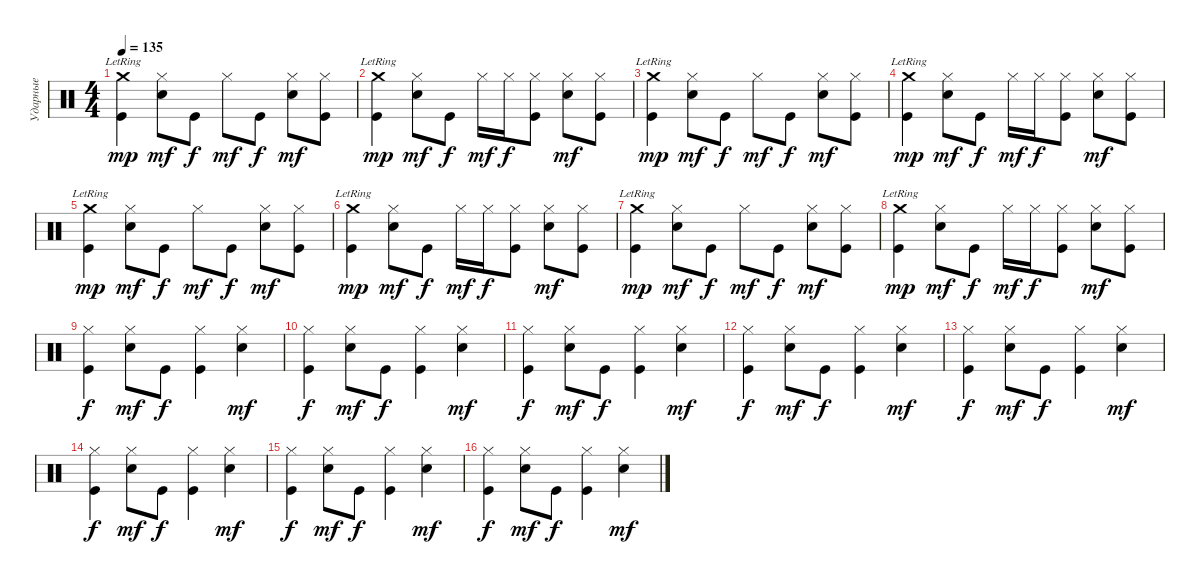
\track ("Ударные" "Ударные") {instrument percussion}
\staff {score}
\articulation defaults
\ts (4 4)
\tempo 135
\clef neutral
\ks c
("Crash medium (hit)"{lr} "Kick (hit)").4{dy mp} ("Hi-Hat (closed)" "Electric Snare (hit)").8{dy mf} "Kick (hit)".8{dy f} "Hi-Hat (closed)".8{dy mf} "Kick (hit)".8{dy f} ("Hi-Hat (closed)" "Electric Snare (hit)").8{dy mf} ("Hi-Hat (closed)" "Kick (hit)").8 |
("Crash medium (hit)"{lr} "Kick (hit)").4{dy mp} ("Hi-Hat (closed)" "Electric Snare (hit)").8{dy mf} "Kick (hit)".8{dy f} "Hi-Hat (closed)".16{dy mf} "Hi-Hat (closed)".16{dy f} ("Hi-Hat (closed)" "Kick (hit)").8 ("Hi-Hat (closed)" "Electric Snare (hit)").8{dy mf} ("Hi-Hat (closed)" "Kick (hit)").8 |
("Crash medium (hit)"{lr} "Kick (hit)").4{dy mp} ("Hi-Hat (closed)" "Electric Snare (hit)").8{dy mf} "Kick (hit)".8{dy f} "Hi-Hat (closed)".8{dy mf} "Kick (hit)".8{dy f} ("Hi-Hat (closed)" "Electric Snare (hit)").8{dy mf} ("Hi-Hat (closed)" "Kick (hit)").8 |
("Crash medium (hit)"{lr} "Kick (hit)").4{dy mp} ("Hi-Hat (closed)" "Electric Snare (hit)").8{dy mf} "Kick (hit)".8{dy f} "Hi-Hat (closed)".16{dy mf} "Hi-Hat (closed)".16{dy f} ("Hi-Hat (closed)" "Kick (hit)").8 ("Hi-Hat (closed)" "Electric Snare (hit)").8{dy mf} ("Hi-Hat (closed)" "Kick (hit)").8 |
("Crash medium (hit)"{lr} "Kick (hit)").4{dy mp} ("Hi-Hat (closed)" "Electric Snare (hit)").8{dy mf} "Kick (hit)".8{dy f} "Hi-Hat (closed)".8{dy mf} "Kick (hit)".8{dy f} ("Hi-Hat (closed)" "Electric Snare (hit)").8{dy mf} ("Hi-Hat (closed)" "Kick (hit)").8 |
("Crash medium (hit)"{lr} "Kick (hit)").4{dy mp} ("Hi-Hat (closed)" "Electric Snare (hit)").8{dy mf} "Kick (hit)".8{dy f} "Hi-Hat (closed)".16{dy mf} "Hi-Hat (closed)".16{dy f} ("Hi-Hat (closed)" "Kick (hit)").8 ("Hi-Hat (closed)" "Electric Snare (hit)").8{dy mf} ("Hi-Hat (closed)" "Kick (hit)").8 |
("Crash medium (hit)"{lr} "Kick (hit)").4{dy mp} ("Hi-Hat (closed)" "Electric Snare (hit)").8{dy mf} "Kick (hit)".8{dy f} "Hi-Hat (closed)".8{dy mf} "Kick (hit)".8{dy f} ("Hi-Hat (closed)" "Electric Snare (hit)").8{dy mf} ("Hi-Hat (closed)" "Kick (hit)").8 |
("Crash medium (hit)"{lr} "Kick (hit)").4{dy mp} ("Hi-Hat (closed)" "Electric Snare (hit)").8{dy mf} "Kick (hit)".8{dy f} "Hi-Hat (closed)".16{dy mf} "Hi-Hat (closed)".16{dy f} ("Hi-Hat (closed)" "Kick (hit)").8 ("Hi-Hat (closed)" "Electric Snare (hit)").8{dy mf} ("Hi-Hat (closed)" "Kick (hit)").8 |
("Hi-Hat (closed)" "Kick (hit)").4{dy f volume 14} ("Hi-Hat (closed)" "Electric Snare (hit)").8{dy mf} "Kick (hit)".8{dy f} ("Hi-Hat (closed)" "Kick (hit)").4 ("Hi-Hat (closed)" "Electric Snare (hit)").4{dy mf} |
("Hi-Hat (closed)" "Kick (hit)").4{dy f} ("Hi-Hat (closed)" "Electric Snare (hit)").8{dy mf} "Kick (hit)".8{dy f} ("Hi-Hat (closed)" "Kick (hit)").4 ("Hi-Hat (closed)" "Electric Snare (hit)").4{dy mf} |
("Hi-Hat (closed)" "Kick (hit)").4{dy f} ("Hi-Hat (closed)" "Electric Snare (hit)").8{dy mf} "Kick (hit)".8{dy f} ("Hi-Hat (closed)" "Kick (hit)").4 ("Hi-Hat (closed)" "Electric Snare (hit)").4{dy mf} |
("Hi-Hat (closed)" "Kick (hit)").4{dy f} ("Hi-Hat (closed)" "Electric Snare (hit)").8{dy mf} "Kick (hit)".8{dy f} ("Hi-Hat (closed)" "Kick (hit)").4 ("Hi-Hat (closed)" "Electric Snare (hit)").4{dy mf} |
("Hi-Hat (closed)" "Kick (hit)").4{dy f volume 14} ("Hi-Hat (closed)" "Electric Snare (hit)").8{dy mf} "Kick (hit)".8{dy f} ("Hi-Hat (closed)" "Kick (hit)").4 ("Hi-Hat (closed)" "Electric Snare (hit)").4{dy mf} |
("Hi-Hat (closed)" "Kick (hit)").4{dy f} ("Hi-Hat (closed)" "Electric Snare (hit)").8{dy mf} "Kick (hit)".8{dy f} ("Hi-Hat (closed)" "Kick (hit)").4 ("Hi-Hat (closed)" "Electric Snare (hit)").4{dy mf} |
("Hi-Hat (closed)" "Kick (hit)").4{dy f} ("Hi-Hat (closed)" "Electric Snare (hit)").8{dy mf} "Kick (hit)".8{dy f} ("Hi-Hat (closed)" "Kick (hit)").4 ("Hi-Hat (closed)" "Electric Snare (hit)").4{dy mf} |
("Hi-Hat (closed)" "Kick (hit)").4{dy f} ("Hi-Hat (closed)" "Electric Snare (hit)").8{dy mf} "Kick (hit)".8{dy f} ("Hi-Hat (closed)" "Kick (hit)").4 ("Hi-Hat (closed)" "Electric Snare (hit)").4{dy mf}
